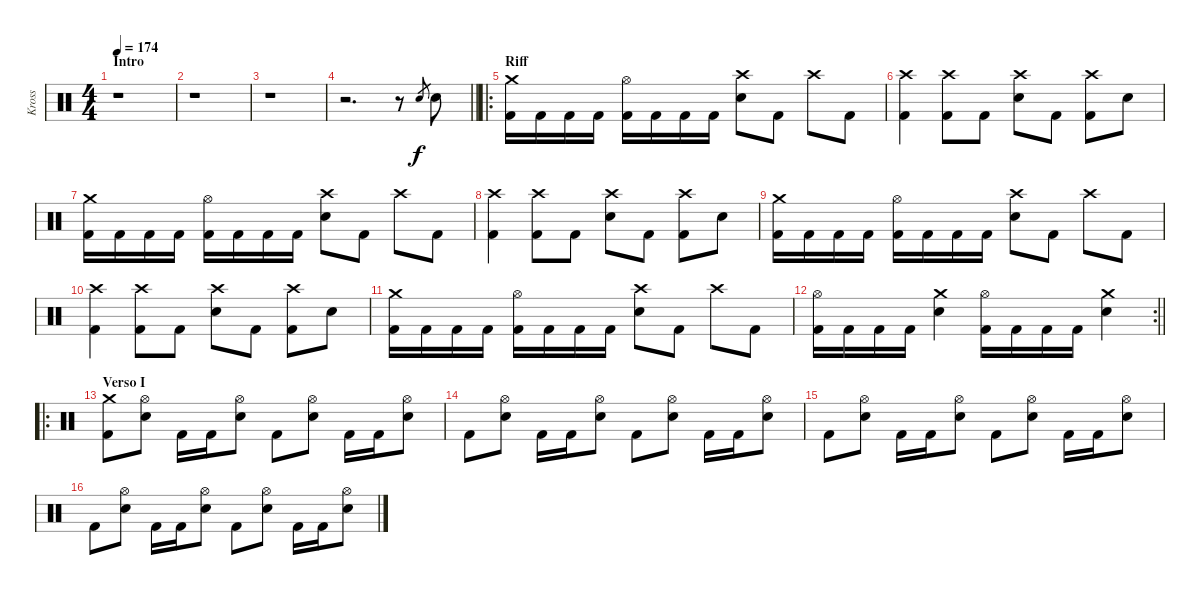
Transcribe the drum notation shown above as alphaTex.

\track ("Kross" "Kross") {instrument percussion}
\staff {score}
\articulation defaults
\ts (4 4)
\section ("" "Intro")
\tempo 174
\clef neutral
\ks c
r.1{dy f} |
r.1 |
r.1 |
\barLineRight lightlight
r.2{d} r.8 "Electric Snare (hit)".8{gr} "Electric Snare (hit)".8 |
\ro
\section ("" "Riff")
("Crash medium (hit)" "Kick (hit) 2").16 "Kick (hit) 2".16 "Kick (hit) 2".16 "Kick (hit) 2".16 ("Hi-Hat (open)" "Kick (hit) 2").16 "Kick (hit) 2".16 "Kick (hit) 2".16 "Kick (hit) 2".16 ("Crash high (hit)" "Electric Snare (hit)").8 "Kick (hit) 2".8 "Crash high (hit)".8 "Kick (hit) 2".8 |
("Crash high (hit)" "Kick (hit) 2").4 ("Crash high (hit)" "Kick (hit) 2").8 "Kick (hit) 2".8 ("Crash high (hit)" "Electric Snare (hit)").8 "Kick (hit) 2".8 ("Crash high (hit)" "Kick (hit) 2").8 "Electric Snare (hit)".8 |
("Crash medium (hit)" "Kick (hit) 2").16 "Kick (hit) 2".16 "Kick (hit) 2".16 "Kick (hit) 2".16 ("Hi-Hat (open)" "Kick (hit) 2").16 "Kick (hit) 2".16 "Kick (hit) 2".16 "Kick (hit) 2".16 ("Crash high (hit)" "Electric Snare (hit)").8 "Kick (hit) 2".8 "Crash high (hit)".8 "Kick (hit) 2".8 |
("Crash high (hit)" "Kick (hit) 2").4 ("Crash high (hit)" "Kick (hit) 2").8 "Kick (hit) 2".8 ("Crash high (hit)" "Electric Snare (hit)").8 "Kick (hit) 2".8 ("Crash high (hit)" "Kick (hit) 2").8 "Electric Snare (hit)".8 |
("Crash medium (hit)" "Kick (hit) 2").16 "Kick (hit) 2".16 "Kick (hit) 2".16 "Kick (hit) 2".16 ("Hi-Hat (open)" "Kick (hit) 2").16 "Kick (hit) 2".16 "Kick (hit) 2".16 "Kick (hit) 2".16 ("Crash high (hit)" "Electric Snare (hit)").8 "Kick (hit) 2".8 "Crash high (hit)".8 "Kick (hit) 2".8 |
("Crash high (hit)" "Kick (hit) 2").4 ("Crash high (hit)" "Kick (hit) 2").8 "Kick (hit) 2".8 ("Crash high (hit)" "Electric Snare (hit)").8 "Kick (hit) 2".8 ("Crash high (hit)" "Kick (hit) 2").8 "Electric Snare (hit)".8 |
("Crash medium (hit)" "Kick (hit) 2").16 "Kick (hit) 2".16 "Kick (hit) 2".16 "Kick (hit) 2".16 ("Hi-Hat (open)" "Kick (hit) 2").16 "Kick (hit) 2".16 "Kick (hit) 2".16 "Kick (hit) 2".16 ("Crash high (hit)" "Electric Snare (hit)").8 "Kick (hit) 2".8 "Crash high (hit)".8 "Kick (hit) 2".8 |
\rc 2
\barLineRight lightlight
("Hi-Hat (open)" "Kick (hit) 2").16 "Kick (hit) 2".16 "Kick (hit) 2".16 "Kick (hit) 2".16 ("Crash medium (hit)" "Electric Snare (hit)").4 ("Hi-Hat (open)" "Kick (hit) 2").16 "Kick (hit) 2".16 "Kick (hit) 2".16 "Kick (hit) 2".16 ("Crash medium (hit)" "Electric Snare (hit)").4 |
\ro
\section ("" "Verso I")
("Crash medium (hit)" "Kick (hit) 2").8 ("Hi-Hat (open)" "Electric Snare (hit)").8 "Kick (hit) 2".16 "Kick (hit) 2".16 ("Hi-Hat (open)" "Electric Snare (hit)").8 "Kick (hit) 2".8 ("Hi-Hat (open)" "Electric Snare (hit)").8 "Kick (hit) 2".16 "Kick (hit) 2".16 ("Hi-Hat (open)" "Electric Snare (hit)").8 |
"Kick (hit) 2".8 ("Hi-Hat (open)" "Electric Snare (hit)").8 "Kick (hit) 2".16 "Kick (hit) 2".16 ("Hi-Hat (open)" "Electric Snare (hit)").8 "Kick (hit) 2".8 ("Hi-Hat (open)" "Electric Snare (hit)").8 "Kick (hit) 2".16 "Kick (hit) 2".16 ("Hi-Hat (open)" "Electric Snare (hit)").8 |
"Kick (hit) 2".8 ("Hi-Hat (open)" "Electric Snare (hit)").8 "Kick (hit) 2".16 "Kick (hit) 2".16 ("Hi-Hat (open)" "Electric Snare (hit)").8 "Kick (hit) 2".8 ("Hi-Hat (open)" "Electric Snare (hit)").8 "Kick (hit) 2".16 "Kick (hit) 2".16 ("Hi-Hat (open)" "Electric Snare (hit)").8 |
"Kick (hit) 2".8 ("Hi-Hat (open)" "Electric Snare (hit)").8 "Kick (hit) 2".16 "Kick (hit) 2".16 ("Hi-Hat (open)" "Electric Snare (hit)").8 "Kick (hit) 2".8 ("Hi-Hat (open)" "Electric Snare (hit)").8 "Kick (hit) 2".16 "Kick (hit) 2".16 ("Hi-Hat (open)" "Electric Snare (hit)").8
